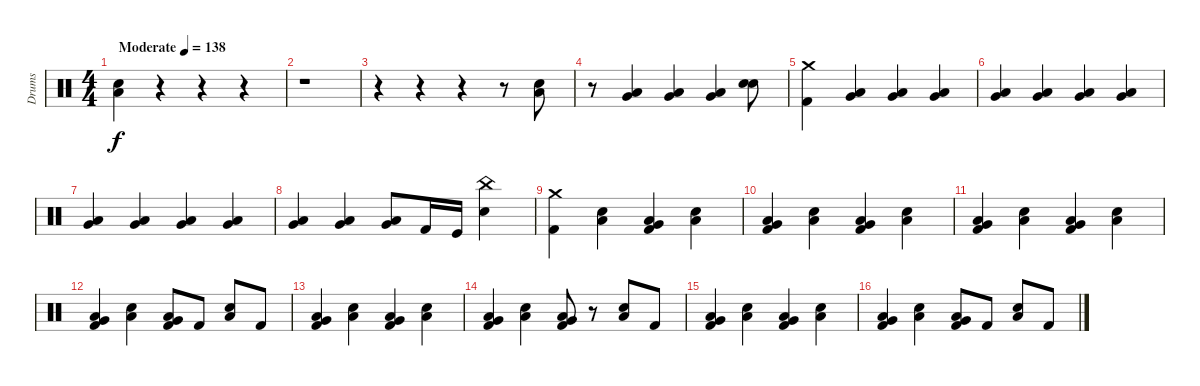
\track ("Drums" "Drums") {instrument percussion}
\staff
\articulation defaults
\ts (4 4)
\tempo (138 "Moderate")
\clef neutral
\ks c
("Low Floor Tom (hit)" "Snare (hit) 2").4{dy f} r.4 r.4 r.4 |
r.1 |
r.4 r.4 r.4 r.8 ("Low Floor Tom (hit)" "Snare (hit) 2").8 |
r.8 ("Low Floor Tom (hit)" "Very Low Tom (hit)").4 ("Very Low Tom (hit)" "Low Floor Tom (hit)").4 ("Very Low Tom (hit)" "Low Floor Tom (hit)").4 ("Snare (hit) 2" "Snare (hit) 2").8{bd 60} |
("Crash medium (hit)" "Kick (hit) 2").4 ("Low Floor Tom (hit)" "Very Low Tom (hit)").4 ("Low Floor Tom (hit)" "Very Low Tom (hit)").4 ("Low Floor Tom (hit)" "Very Low Tom (hit)").4 |
("Low Floor Tom (hit)" "Very Low Tom (hit)").4 ("Low Floor Tom (hit)" "Very Low Tom (hit)").4 ("Low Floor Tom (hit)" "Very Low Tom (hit)").4 ("Low Floor Tom (hit)" "Very Low Tom (hit)").4 |
("Low Floor Tom (hit)" "Very Low Tom (hit)").4 ("Low Floor Tom (hit)" "Very Low Tom (hit)").4 ("Low Floor Tom (hit)" "Very Low Tom (hit)").4 ("Low Floor Tom (hit)" "Very Low Tom (hit)").4 |
("Low Floor Tom (hit)" "Very Low Tom (hit)").4 ("Low Floor Tom (hit)" "Very Low Tom (hit)").4 ("Low Floor Tom (hit)" "Very Low Tom (hit)").8 "Kick (hit) 2".16 "Kick (hit)".16 ("China (hit)" "Snare (hit) 2").4 |
("Crash medium (hit)" "Kick (hit) 2").4 ("Low Floor Tom (hit)" "Snare (hit) 2").4 ("Very Low Tom (hit)" "Low Floor Tom (hit)" "Kick (hit) 2").4 ("Low Floor Tom (hit)" "Snare (hit) 2").4 |
("Very Low Tom (hit)" "Low Floor Tom (hit)" "Kick (hit) 2").4 ("Low Floor Tom (hit)" "Snare (hit) 2").4 ("Very Low Tom (hit)" "Low Floor Tom (hit)" "Kick (hit) 2").4 ("Low Floor Tom (hit)" "Snare (hit) 2").4 |
("Very Low Tom (hit)" "Low Floor Tom (hit)" "Kick (hit) 2").4 ("Low Floor Tom (hit)" "Snare (hit) 2").4 ("Very Low Tom (hit)" "Low Floor Tom (hit)" "Kick (hit) 2").4 ("Low Floor Tom (hit)" "Snare (hit) 2").4 |
("Very Low Tom (hit)" "Low Floor Tom (hit)" "Kick (hit) 2").4 ("Low Floor Tom (hit)" "Snare (hit) 2").4 ("Very Low Tom (hit)" "Low Floor Tom (hit)" "Kick (hit) 2").8 "Kick (hit) 2".8 ("Low Floor Tom (hit)" "Snare (hit) 2").8 "Kick (hit) 2".8 |
("Low Floor Tom (hit)" "Very Low Tom (hit)" "Kick (hit) 2").4 ("Low Floor Tom (hit)" "Snare (hit) 2").4 ("Very Low Tom (hit)" "Low Floor Tom (hit)" "Kick (hit) 2").4 ("Low Floor Tom (hit)" "Snare (hit) 2").4 |
("Very Low Tom (hit)" "Low Floor Tom (hit)" "Kick (hit) 2").4 ("Low Floor Tom (hit)" "Snare (hit) 2").4 ("Very Low Tom (hit)" "Low Floor Tom (hit)" "Kick (hit) 2").8 r.8 ("Low Floor Tom (hit)" "Snare (hit) 2").8 "Kick (hit) 2".8 |
("Very Low Tom (hit)" "Low Floor Tom (hit)" "Kick (hit) 2").4 ("Low Floor Tom (hit)" "Snare (hit) 2").4 ("Very Low Tom (hit)" "Low Floor Tom (hit)" "Kick (hit) 2").4 ("Low Floor Tom (hit)" "Snare (hit) 2").4 |
("Very Low Tom (hit)" "Low Floor Tom (hit)" "Kick (hit) 2").4 ("Low Floor Tom (hit)" "Snare (hit) 2").4 ("Very Low Tom (hit)" "Low Floor Tom (hit)" "Kick (hit) 2").8 "Kick (hit) 2".8 ("Low Floor Tom (hit)" "Snare (hit) 2").8 "Kick (hit) 2".8
